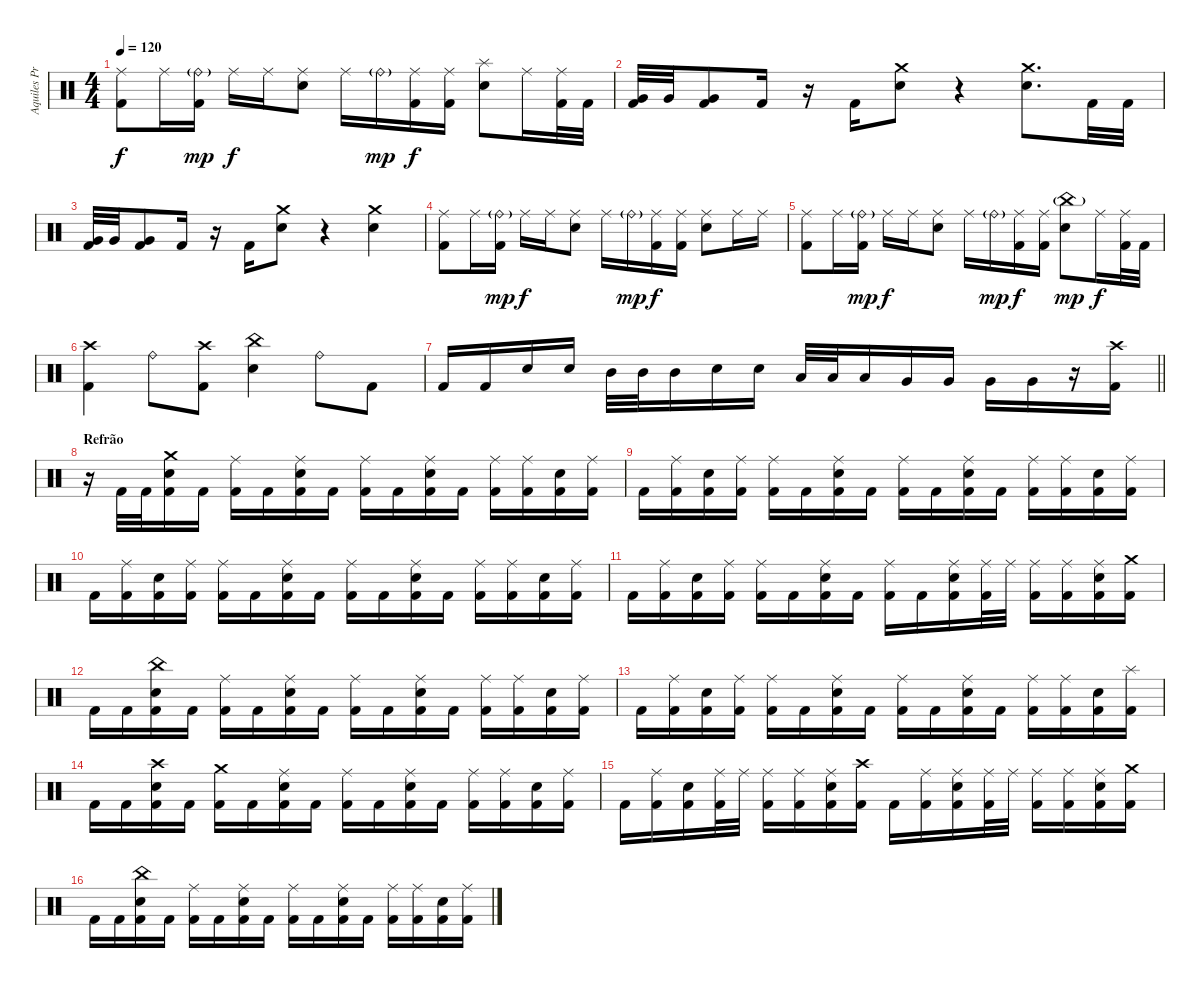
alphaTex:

\track ("Aquiles Priester" "Aquiles Pr") {instrument percussion}
\staff {score}
\articulation defaults
\ts (4 4)
\tempo 120
\clef neutral
\ks c
("Ride (middle)" "Kick (hit) 2").8{dy f} "Ride (middle)".16 ("Ride (bell)"{g} "Kick (hit) 2").16{dy mp} "Ride (middle)".16{dy f} "Ride (middle)".16 ("Ride (middle)" "Electric Snare (hit)").8 "Ride (middle)".16 "Ride (bell)"{g}.16{dy mp} ("Ride (middle)" "Kick (hit) 2").16{dy f} ("Ride (middle)" "Kick (hit) 2").16 ("Splash (hit)" "Electric Snare (hit)").8 "Ride (middle)".16 ("Ride (middle)" "Kick (hit) 2").32 "Kick (hit) 2".32 |
("Very Low Tom (hit)" "Kick (hit) 2").32 "Very Low Tom (hit)".32 ("Very Low Tom (hit)" "Kick (hit) 2").8 "Kick (hit) 2".16 r.16 "Kick (hit) 2".16 ("Crash medium (hit)" "Electric Snare (hit)").8 r.4 ("Crash medium (hit)" "Electric Snare (hit)").8{d} "Kick (hit) 2".32 "Kick (hit) 2".32 |
("Very Low Tom (hit)" "Kick (hit) 2").32 "Very Low Tom (hit)".32 ("Very Low Tom (hit)" "Kick (hit) 2").8 "Kick (hit) 2".16 r.16 "Kick (hit) 2".16 ("Crash medium (hit)" "Electric Snare (hit)").8 r.4 ("Crash medium (hit)" "Electric Snare (hit)").4 |
("Ride (middle)" "Kick (hit) 2").8 "Ride (middle)".16 ("Ride (bell)"{g} "Kick (hit) 2").16{dy mp} "Ride (middle)".16{dy f} "Ride (middle)".16 ("Ride (middle)" "Electric Snare (hit)").8 "Ride (middle)".16 "Ride (bell)"{g}.16{dy mp} ("Ride (middle)" "Kick (hit) 2").16{dy f} ("Ride (middle)" "Kick (hit) 2").16 ("Ride (middle)" "Electric Snare (hit)").8 "Ride (middle)".16 "Ride (middle)".16 |
("Ride (middle)" "Kick (hit) 2").8 "Ride (middle)".16 ("Ride (bell)"{g} "Kick (hit) 2").16{dy mp} "Ride (middle)".16{dy f} "Ride (middle)".16 ("Ride (middle)" "Electric Snare (hit)").8 "Ride (middle)".16 "Ride (bell)"{g}.16{dy mp} ("Ride (middle)" "Kick (hit) 2").16{dy f} ("Ride (middle)" "Kick (hit) 2").16 ("China (hit)"{g} "Electric Snare (hit)").8{dy mp} "Ride (middle)".16{dy f} ("Ride (middle)" "Kick (hit) 2").32 "Kick (hit) 2".32 |
("Crash high (hit)" "Kick (hit) 2").4 "Ride (bell)".8 ("Crash high (hit)" "Kick (hit) 2").8 ("China (hit)" "Electric Snare (hit)").4 "Ride (bell)".8 "Kick (hit) 2".8 |
\barLineRight lightlight "Kick (hit) 2".16 "Kick (hit) 2".16 "Electric Snare (hit)".16 "Electric Snare (hit)".16 "Mid Tom (hit)".32 "Mid Tom (hit)".32 "Mid Tom (hit)".16 "Electric Snare (hit)".16 "Electric Snare (hit)".16 "Low Tom (hit)".32 "Low Tom (hit)".32 "Low Tom (hit)".16 "Very Low Tom (hit)".16 "Very Low Tom (hit)".16 "Very Low Tom (hit)".16 "Very Low Tom (hit)".16
r.16 ("Crash high (hit)" "Kick (hit) 2").16 |
\section ("" "Refrão")
r.16 "Kick (hit) 2".32 "Kick (hit) 2".32 ("Crash medium (hit)" "Electric Snare (hit)" "Kick (hit) 2").16 "Kick (hit) 2".16 ("Ride (middle)" "Kick (hit) 2").16 "Kick (hit) 2".16 ("Ride (middle)" "Electric Snare (hit)" "Kick (hit) 2").16 "Kick (hit) 2".16 ("Ride (middle)" "Kick (hit) 2").16 "Kick (hit) 2".16 ("Ride (middle)" "Electric Snare (hit)" "Kick (hit) 2").16 "Kick (hit) 2".16 ("Ride (middle)" "Kick (hit) 2").16 ("Ride (middle)" "Kick (hit) 2").16 ("Electric Snare (hit)" "Kick (hit) 2").16 ("Ride (middle)" "Kick (hit) 2").16 |
"Kick (hit) 2".16 ("Ride (middle)" "Kick (hit) 2").16 ("Electric Snare (hit)" "Kick (hit) 2").16 ("Ride (middle)" "Kick (hit) 2").16 ("Ride (middle)" "Kick (hit) 2").16 "Kick (hit) 2".16 ("Ride (middle)" "Electric Snare (hit)" "Kick (hit) 2").16 "Kick (hit) 2".16 ("Ride (middle)" "Kick (hit) 2").16 "Kick (hit) 2".16 ("Ride (middle)" "Electric Snare (hit)" "Kick (hit) 2").16 "Kick (hit) 2".16 ("Ride (middle)" "Kick (hit) 2").16 ("Ride (middle)" "Kick (hit) 2").16 ("Electric Snare (hit)" "Kick (hit) 2").16 ("Ride (middle)" "Kick (hit) 2").16 |
"Kick (hit) 2".16 ("Ride (middle)" "Kick (hit) 2").16 ("Electric Snare (hit)" "Kick (hit) 2").16 ("Ride (middle)" "Kick (hit) 2").16 ("Ride (middle)" "Kick (hit) 2").16 "Kick (hit) 2".16 ("Ride (middle)" "Electric Snare (hit)" "Kick (hit) 2").16 "Kick (hit) 2".16 ("Ride (middle)" "Kick (hit) 2").16 "Kick (hit) 2".16 ("Ride (middle)" "Electric Snare (hit)" "Kick (hit) 2").16 "Kick (hit) 2".16 ("Ride (middle)" "Kick (hit) 2").16 ("Ride (middle)" "Kick (hit) 2").16 ("Electric Snare (hit)" "Kick (hit) 2").16 ("Ride (middle)" "Kick (hit) 2").16 |
"Kick (hit) 2".16 ("Ride (middle)" "Kick (hit) 2").16 ("Electric Snare (hit)" "Kick (hit) 2").16 ("Ride (middle)" "Kick (hit) 2").16 ("Ride (middle)" "Kick (hit) 2").16 "Kick (hit) 2".16 ("Ride (middle)" "Electric Snare (hit)" "Kick (hit) 2").16 "Kick (hit) 2".16 ("Ride (middle)" "Kick (hit) 2").16 "Kick (hit) 2".16 ("Ride (middle)" "Electric Snare (hit)" "Kick (hit) 2").16 ("Ride (middle)" "Kick (hit) 2").32 "Ride (middle)".32 ("Ride (middle)" "Kick (hit) 2").16 ("Ride (middle)" "Kick (hit) 2").16 ("Ride (middle)" "Electric Snare (hit)" "Kick (hit) 2").16 ("Crash medium (hit)" "Kick (hit) 2").16 |
"Kick (hit) 2".16 "Kick (hit) 2".16 ("China (hit)" "Electric Snare (hit)" "Kick (hit) 2").16 "Kick (hit) 2".16 ("Ride (middle)" "Kick (hit) 2").16 "Kick (hit) 2".16 ("Ride (middle)" "Electric Snare (hit)" "Kick (hit) 2").16 "Kick (hit) 2".16 ("Ride (middle)" "Kick (hit) 2").16 "Kick (hit) 2".16 ("Ride (middle)" "Electric Snare (hit)" "Kick (hit) 2").16 "Kick (hit) 2".16 ("Ride (middle)" "Kick (hit) 2").16 ("Ride (middle)" "Kick (hit) 2").16 ("Electric Snare (hit)" "Kick (hit) 2").16 ("Ride (middle)" "Kick (hit) 2").16 |
"Kick (hit) 2".16 ("Ride (middle)" "Kick (hit) 2").16 ("Electric Snare (hit)" "Kick (hit) 2").16 ("Ride (middle)" "Kick (hit) 2").16 ("Ride (middle)" "Kick (hit) 2").16 "Kick (hit) 2".16 ("Ride (middle)" "Electric Snare (hit)" "Kick (hit) 2").16 "Kick (hit) 2".16 ("Ride (middle)" "Kick (hit) 2").16 "Kick (hit) 2".16 ("Ride (middle)" "Electric Snare (hit)" "Kick (hit) 2").16 "Kick (hit) 2".16 ("Ride (middle)" "Kick (hit) 2").16 ("Ride (middle)" "Kick (hit) 2").16 ("Electric Snare (hit)" "Kick (hit) 2").16 ("Splash (hit)" "Kick (hit) 2").16 |
"Kick (hit) 2".16 "Kick (hit) 2".16 ("Crash high (hit)" "Electric Snare (hit)" "Kick (hit) 2").16 "Kick (hit) 2".16 ("Crash medium (hit)" "Kick (hit) 2").16 "Kick (hit) 2".16 ("Ride (middle)" "Electric Snare (hit)" "Kick (hit) 2").16 "Kick (hit) 2".16 ("Ride (middle)" "Kick (hit) 2").16 "Kick (hit) 2".16 ("Ride (middle)" "Electric Snare (hit)" "Kick (hit) 2").16 "Kick (hit) 2".16 ("Ride (middle)" "Kick (hit) 2").16 ("Ride (middle)" "Kick (hit) 2").16 ("Electric Snare (hit)" "Kick (hit) 2").16 ("Ride (middle)" "Kick (hit) 2").16 |
"Kick (hit) 2".16 ("Ride (middle)" "Kick (hit) 2").16 ("Electric Snare (hit)" "Kick (hit) 2").16 ("Ride (middle)" "Kick (hit) 2").32 "Ride (middle)".32 ("Ride (middle)" "Kick (hit) 2").16 ("Ride (middle)" "Kick (hit) 2").16 ("Ride (middle)" "Electric Snare (hit)" "Kick (hit) 2").16 ("Crash high (hit)" "Kick (hit) 2").16 "Kick (hit) 2".16 ("Ride (middle)" "Kick (hit) 2").16 ("Ride (middle)" "Electric Snare (hit)" "Kick (hit) 2").16 ("Ride (middle)" "Kick (hit) 2").32 "Ride (middle)".32 ("Ride (middle)" "Kick (hit) 2").16 ("Ride (middle)" "Kick (hit) 2").16 ("Ride (middle)" "Electric Snare (hit)" "Kick (hit) 2").16 ("Crash medium (hit)" "Kick (hit) 2").16 |
"Kick (hit) 2".16 "Kick (hit) 2".16 ("China (hit)" "Electric Snare (hit)" "Kick (hit) 2").16 "Kick (hit) 2".16 ("Ride (middle)" "Kick (hit) 2").16 "Kick (hit) 2".16 ("Ride (middle)" "Electric Snare (hit)" "Kick (hit) 2").16 "Kick (hit) 2".16 ("Ride (middle)" "Kick (hit) 2").16 "Kick (hit) 2".16 ("Ride (middle)" "Electric Snare (hit)" "Kick (hit) 2").16 "Kick (hit) 2".16 ("Ride (middle)" "Kick (hit) 2").16 ("Ride (middle)" "Kick (hit) 2").16 ("Electric Snare (hit)" "Kick (hit) 2").16 ("Ride (middle)" "Kick (hit) 2").16
